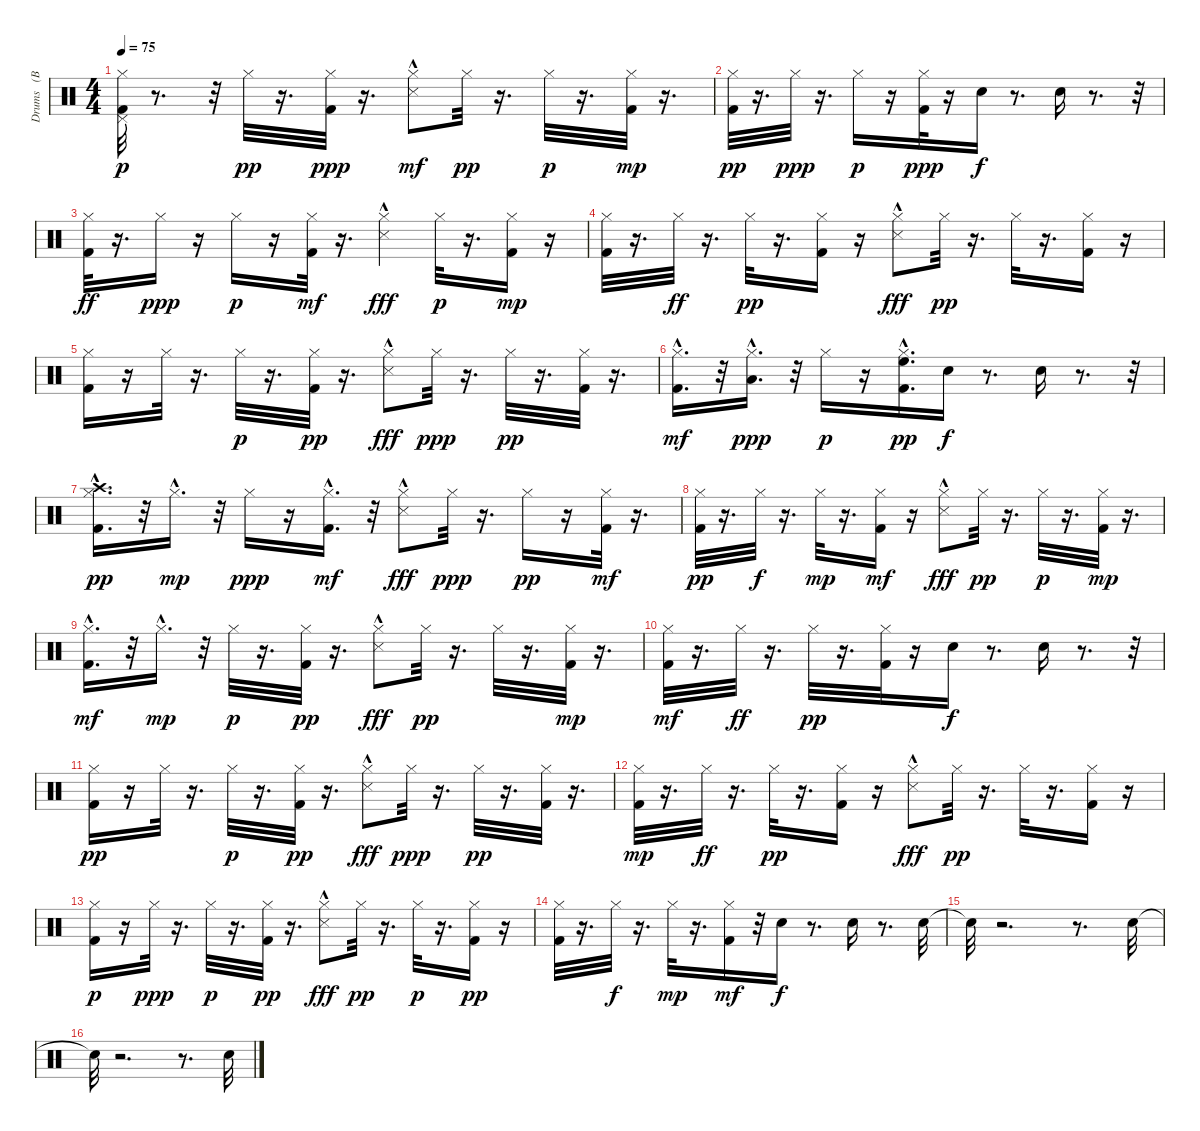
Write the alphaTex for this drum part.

\track ("Drums   (BB)" "Drums   (B") {instrument percussion}
\staff {score}
\articulation defaults
\ts (4 4)
\tempo 75
\clef neutral
\ks c
("Pedal Hi-Hat (hit)" "Kick (hit) 2" "Hi-Hat (closed)").32{dy p} r.8{d} r.32 "Hi-Hat (closed)".32{dy pp} r.16{d} ("Kick (hit) 2" "Hi-Hat (closed)").32{dy ppp} r.16{d} ("Hi-Hat (closed)" "Snare (side stick) 3"{hac}).8{dy mf} "Hi-Hat (closed)".32{dy pp} r.16{d} "Hi-Hat (closed)".32{dy p} r.16{d} ("Hi-Hat (closed)" "Kick (hit) 2").32{dy mp} r.16{d} |
("Kick (hit) 2" "Hi-Hat (closed)").32{dy pp} r.16{d} "Hi-Hat (closed)".32{dy ppp} r.16{d} "Hi-Hat (closed)".16{dy p} r.16 ("Kick (hit) 2" "Hi-Hat (closed)").32{dy ppp} r.16 "Snare (hit) 2".16{dy f} r.8{d} "Snare (hit) 2".16 r.8{d} r.32 |
("Hi-Hat (closed)" "Kick (hit) 2").32{dy ff} r.16{d} "Hi-Hat (closed)".16{dy ppp} r.16 "Hi-Hat (closed)".16{dy p} r.16 ("Hi-Hat (closed)" "Kick (hit) 2").32{dy mf} r.16{d} ("Snare (side stick) 3"{hac} "Hi-Hat (closed)").4{dy fff} "Hi-Hat (closed)".32{dy p} r.16{d} ("Hi-Hat (closed)" "Kick (hit) 2").16{dy mp} r.16 |
("Hi-Hat (closed)" "Kick (hit) 2").32 r.16{d} "Hi-Hat (closed)".32{dy ff} r.16{d} "Hi-Hat (closed)".32{dy pp} r.16{d} ("Kick (hit) 2" "Hi-Hat (closed)").16 r.16 ("Snare (side stick) 3"{hac} "Hi-Hat (closed)").8{dy fff} "Hi-Hat (closed)".32{dy pp} r.16{d} "Hi-Hat (closed)".32 r.16{d} ("Kick (hit) 2" "Hi-Hat (closed)").16 r.16 |
("Kick (hit) 2" "Hi-Hat (closed)").16 r.16 "Hi-Hat (closed)".32 r.16{d} "Hi-Hat (closed)".32{dy p} r.16{d} ("Kick (hit) 2" "Hi-Hat (closed)").32{dy pp} r.16{d} ("Snare (side stick) 3"{hac} "Hi-Hat (closed)").8{dy fff} "Hi-Hat (closed)".32{dy ppp} r.16{d} "Hi-Hat (closed)".32{dy pp} r.16{d} ("Kick (hit) 2" "Hi-Hat (closed)").32 r.16{d} |
("Hi-Hat (closed)"{hac} "Kick (hit) 2").16{d dy mf} r.32 ("Hi-Hat (closed)" "Low Tom (hit)"{hac}).16{d dy ppp} r.32 "Hi-Hat (closed)".16{dy p} r.16 ("Kick (hit) 2" "Hi-Hat (closed)" "High Floor Tom (hit)"{hac}).16{d dy pp} "Snare (hit) 2".16{dy f} r.8{d} "Snare (hit) 2".16 r.8{d} r.32 |
("Crash high (hit)"{hac} "Kick (hit) 2"{hac} "Hi-Hat (closed)").16{d dy pp} r.32 "Hi-Hat (closed)"{hac}.16{d dy mp} r.32 "Hi-Hat (closed)".16{dy ppp} r.16 ("Hi-Hat (closed)"{hac} "Kick (hit) 2").16{d dy mf} r.32 ("Snare (side stick) 3"{hac} "Hi-Hat (closed)").8{dy fff} "Hi-Hat (closed)".32{dy ppp} r.16{d} "Hi-Hat (closed)".16{dy pp} r.16 ("Hi-Hat (closed)" "Kick (hit) 2").32{dy mf} r.16{d} |
("Hi-Hat (closed)" "Kick (hit) 2").32{dy pp} r.16{d} "Hi-Hat (closed)".32{dy f} r.16{d} "Hi-Hat (closed)".32{dy mp} r.16{d} ("Hi-Hat (closed)" "Kick (hit) 2").16{dy mf} r.16 ("Snare (side stick) 3"{hac} "Hi-Hat (closed)").8{dy fff} "Hi-Hat (closed)".32{dy pp} r.16{d} "Hi-Hat (closed)".32{dy p} r.16{d} ("Hi-Hat (closed)" "Kick (hit) 2").32{dy mp} r.16{d} |
("Hi-Hat (closed)"{hac} "Kick (hit) 2").16{d dy mf} r.32 "Hi-Hat (closed)"{hac}.16{d dy mp} r.32 "Hi-Hat (closed)".32{dy p} r.16{d} ("Kick (hit) 2" "Hi-Hat (closed)").32{dy pp} r.16{d} ("Snare (side stick) 3"{hac} "Hi-Hat (closed)").8{dy fff} "Hi-Hat (closed)".32{dy pp} r.16{d} "Hi-Hat (closed)".32 r.16{d} ("Hi-Hat (closed)" "Kick (hit) 2").32{dy mp} r.16{d} |
("Hi-Hat (closed)" "Kick (hit) 2").32{dy mf} r.16{d} "Hi-Hat (closed)".32{dy ff} r.16{d} "Hi-Hat (closed)".32{dy pp} r.16{d} ("Kick (hit) 2" "Hi-Hat (closed)").32 r.16 "Snare (hit) 2".16{dy f} r.8{d} "Snare (hit) 2".16 r.8{d} r.32 |
("Kick (hit) 2" "Hi-Hat (closed)").16{dy pp} r.16 "Hi-Hat (closed)".32 r.16{d} "Hi-Hat (closed)".32{dy p} r.16{d} ("Kick (hit) 2" "Hi-Hat (closed)").32{dy pp} r.16{d} ("Snare (side stick) 3"{hac} "Hi-Hat (closed)").8{dy fff} "Hi-Hat (closed)".32{dy ppp} r.16{d} "Hi-Hat (closed)".32{dy pp} r.16{d} ("Kick (hit) 2" "Hi-Hat (closed)").32 r.16{d} |
("Hi-Hat (closed)" "Kick (hit) 2").32{dy mp} r.16{d} "Hi-Hat (closed)".32{dy ff} r.16{d} "Hi-Hat (closed)".32{dy pp} r.16{d} ("Kick (hit) 2" "Hi-Hat (closed)").16 r.16 ("Snare (side stick) 3"{hac} "Hi-Hat (closed)").8{dy fff} "Hi-Hat (closed)".32{dy pp} r.16{d} "Hi-Hat (closed)".32 r.16{d} ("Kick (hit) 2" "Hi-Hat (closed)").16 r.16 |
("Kick (hit) 2" "Hi-Hat (closed)").16{dy p} r.16 "Hi-Hat (closed)".32{dy ppp} r.16{d} "Hi-Hat (closed)".32{dy p} r.16{d} ("Kick (hit) 2" "Hi-Hat (closed)").32{dy pp} r.16{d} ("Snare (side stick) 3"{hac} "Hi-Hat (closed)").8{dy fff} "Hi-Hat (closed)".32{dy pp} r.16{d} "Hi-Hat (closed)".32{dy p} r.16{d} ("Kick (hit) 2" "Hi-Hat (closed)").16{dy pp} r.16 |
("Hi-Hat (closed)" "Kick (hit) 2").32 r.16{d} "Hi-Hat (closed)".32{dy f} r.16{d} "Hi-Hat (closed)".32{dy mp} r.16{d} ("Hi-Hat (closed)" "Kick (hit) 2").16{dy mf} r.32 "Snare (hit) 2".16{dy f} r.8{d} "Snare (hit) 2".16 r.8{d} "Snare (hit) 2".32 |
"Snare (hit)"{t}.32 r.2{d} r.8{d} "Snare (hit) 2".32 |
"Snare (hit)"{t}.32 r.2{d} r.8{d} "Snare (hit) 2".32
